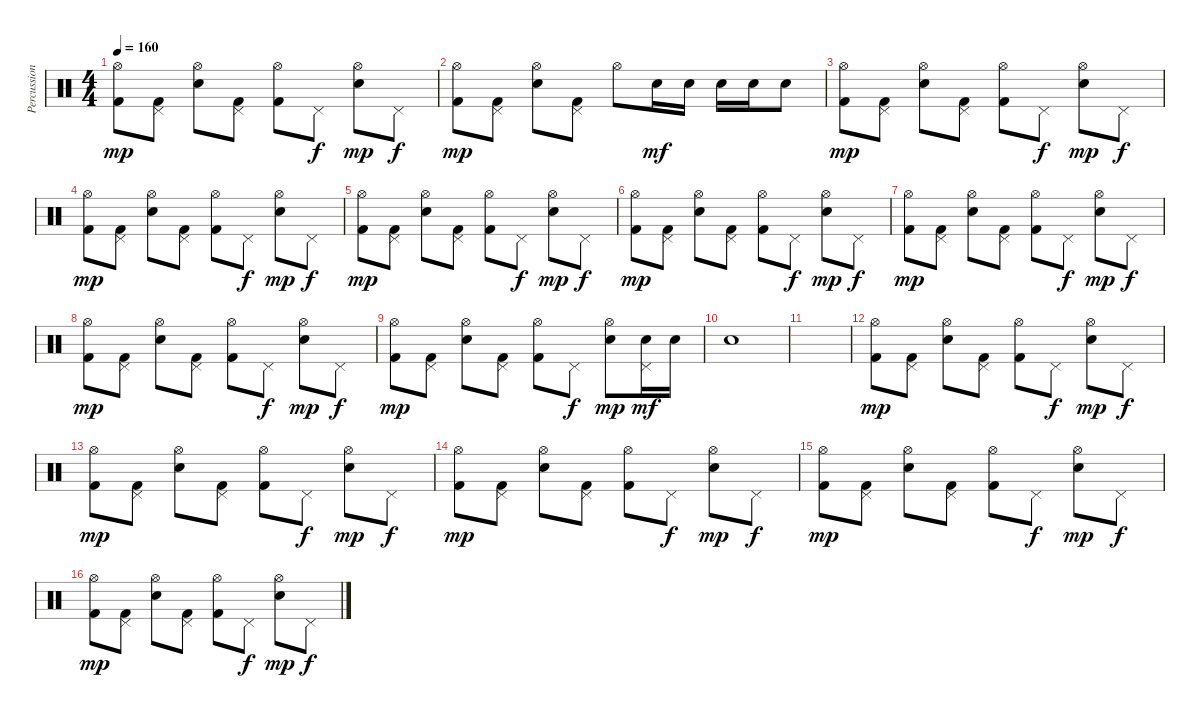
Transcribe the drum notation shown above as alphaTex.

\track ("Percussions" "Percussion") {instrument percussion}
\staff {score}
\articulation defaults
\ts (4 4)
\tempo 160
\clef neutral
\ks c
("Hi-Hat (open)" "Kick (hit) 2").8{dy mp} ("Pedal Hi-Hat (hit)" "Kick (hit) 2").8 ("Hi-Hat (open)" "Snare (hit) 2").8 ("Pedal Hi-Hat (hit)" "Kick (hit) 2").8 ("Hi-Hat (open)" "Kick (hit) 2").8 "Pedal Hi-Hat (hit)".8{dy f} ("Hi-Hat (open)" "Snare (hit) 2").8{dy mp} "Pedal Hi-Hat (hit)".8{dy f} |
("Hi-Hat (open)" "Kick (hit) 2").8{dy mp} ("Pedal Hi-Hat (hit)" "Kick (hit) 2").8 ("Hi-Hat (open)" "Snare (hit) 2").8 ("Pedal Hi-Hat (hit)" "Kick (hit) 2").8 "Hi-Hat (open)".8 "Snare (hit) 2".16{dy mf} "Snare (hit) 2".16 "Snare (hit) 2".16 "Snare (hit) 2".16 "Snare (hit) 2".8 |
("Hi-Hat (open)" "Kick (hit) 2").8{dy mp} ("Pedal Hi-Hat (hit)" "Kick (hit) 2").8 ("Hi-Hat (open)" "Snare (hit) 2").8 ("Pedal Hi-Hat (hit)" "Kick (hit) 2").8 ("Hi-Hat (open)" "Kick (hit) 2").8 "Pedal Hi-Hat (hit)".8{dy f} ("Hi-Hat (open)" "Snare (hit) 2").8{dy mp} "Pedal Hi-Hat (hit)".8{dy f} |
("Hi-Hat (open)" "Kick (hit) 2").8{dy mp} ("Pedal Hi-Hat (hit)" "Kick (hit) 2").8 ("Hi-Hat (open)" "Snare (hit) 2").8 ("Pedal Hi-Hat (hit)" "Kick (hit) 2").8 ("Hi-Hat (open)" "Kick (hit) 2").8 "Pedal Hi-Hat (hit)".8{dy f} ("Hi-Hat (open)" "Snare (hit) 2").8{dy mp} "Pedal Hi-Hat (hit)".8{dy f} |
("Hi-Hat (open)" "Kick (hit) 2").8{dy mp} ("Pedal Hi-Hat (hit)" "Kick (hit) 2").8 ("Hi-Hat (open)" "Snare (hit) 2").8 ("Pedal Hi-Hat (hit)" "Kick (hit) 2").8 ("Hi-Hat (open)" "Kick (hit) 2").8 "Pedal Hi-Hat (hit)".8{dy f} ("Hi-Hat (open)" "Snare (hit) 2").8{dy mp} "Pedal Hi-Hat (hit)".8{dy f} |
("Hi-Hat (open)" "Kick (hit) 2").8{dy mp} ("Pedal Hi-Hat (hit)" "Kick (hit) 2").8 ("Hi-Hat (open)" "Snare (hit) 2").8 ("Pedal Hi-Hat (hit)" "Kick (hit) 2").8 ("Hi-Hat (open)" "Kick (hit) 2").8 "Pedal Hi-Hat (hit)".8{dy f} ("Hi-Hat (open)" "Snare (hit) 2").8{dy mp} "Pedal Hi-Hat (hit)".8{dy f} |
("Hi-Hat (open)" "Kick (hit) 2").8{dy mp} ("Pedal Hi-Hat (hit)" "Kick (hit) 2").8 ("Hi-Hat (open)" "Snare (hit) 2").8 ("Pedal Hi-Hat (hit)" "Kick (hit) 2").8 ("Hi-Hat (open)" "Kick (hit) 2").8 "Pedal Hi-Hat (hit)".8{dy f} ("Hi-Hat (open)" "Snare (hit) 2").8{dy mp} "Pedal Hi-Hat (hit)".8{dy f} |
("Hi-Hat (open)" "Kick (hit) 2").8{dy mp} ("Pedal Hi-Hat (hit)" "Kick (hit) 2").8 ("Hi-Hat (open)" "Snare (hit) 2").8 ("Pedal Hi-Hat (hit)" "Kick (hit) 2").8 ("Hi-Hat (open)" "Kick (hit) 2").8 "Pedal Hi-Hat (hit)".8{dy f} ("Hi-Hat (open)" "Snare (hit) 2").8{dy mp} "Pedal Hi-Hat (hit)".8{dy f} |
("Hi-Hat (open)" "Kick (hit) 2").8{dy mp} ("Pedal Hi-Hat (hit)" "Kick (hit) 2").8 ("Hi-Hat (open)" "Snare (hit) 2").8 ("Pedal Hi-Hat (hit)" "Kick (hit) 2").8 ("Hi-Hat (open)" "Kick (hit) 2").8 "Pedal Hi-Hat (hit)".8{dy f} ("Hi-Hat (open)" "Snare (hit) 2").8{dy mp} ("Pedal Hi-Hat (hit)" "Snare (hit) 2").16{dy mf} "Snare (hit) 2".16 |
"Electric Snare (hit)".1 |
|
("Hi-Hat (open)" "Kick (hit) 2").8{dy mp} ("Pedal Hi-Hat (hit)" "Kick (hit) 2").8 ("Hi-Hat (open)" "Snare (hit) 2").8 ("Pedal Hi-Hat (hit)" "Kick (hit) 2").8 ("Hi-Hat (open)" "Kick (hit) 2").8 "Pedal Hi-Hat (hit)".8{dy f} ("Hi-Hat (open)" "Snare (hit) 2").8{dy mp} "Pedal Hi-Hat (hit)".8{dy f} |
("Hi-Hat (open)" "Kick (hit) 2").8{dy mp} ("Pedal Hi-Hat (hit)" "Kick (hit) 2").8 ("Hi-Hat (open)" "Snare (hit) 2").8 ("Pedal Hi-Hat (hit)" "Kick (hit) 2").8 ("Hi-Hat (open)" "Kick (hit) 2").8 "Pedal Hi-Hat (hit)".8{dy f} ("Hi-Hat (open)" "Snare (hit) 2").8{dy mp} "Pedal Hi-Hat (hit)".8{dy f} |
("Hi-Hat (open)" "Kick (hit) 2").8{dy mp} ("Pedal Hi-Hat (hit)" "Kick (hit) 2").8 ("Hi-Hat (open)" "Snare (hit) 2").8 ("Pedal Hi-Hat (hit)" "Kick (hit) 2").8 ("Hi-Hat (open)" "Kick (hit) 2").8 "Pedal Hi-Hat (hit)".8{dy f} ("Hi-Hat (open)" "Snare (hit) 2").8{dy mp} "Pedal Hi-Hat (hit)".8{dy f} |
("Hi-Hat (open)" "Kick (hit) 2").8{dy mp} ("Pedal Hi-Hat (hit)" "Kick (hit) 2").8 ("Hi-Hat (open)" "Snare (hit) 2").8 ("Pedal Hi-Hat (hit)" "Kick (hit) 2").8 ("Hi-Hat (open)" "Kick (hit) 2").8 "Pedal Hi-Hat (hit)".8{dy f} ("Hi-Hat (open)" "Snare (hit) 2").8{dy mp} "Pedal Hi-Hat (hit)".8{dy f} |
("Hi-Hat (open)" "Kick (hit) 2").8{dy mp} ("Pedal Hi-Hat (hit)" "Kick (hit) 2").8 ("Hi-Hat (open)" "Snare (hit) 2").8 ("Pedal Hi-Hat (hit)" "Kick (hit) 2").8 ("Hi-Hat (open)" "Kick (hit) 2").8 "Pedal Hi-Hat (hit)".8{dy f} ("Hi-Hat (open)" "Snare (hit) 2").8{dy mp} "Pedal Hi-Hat (hit)".8{dy f}
